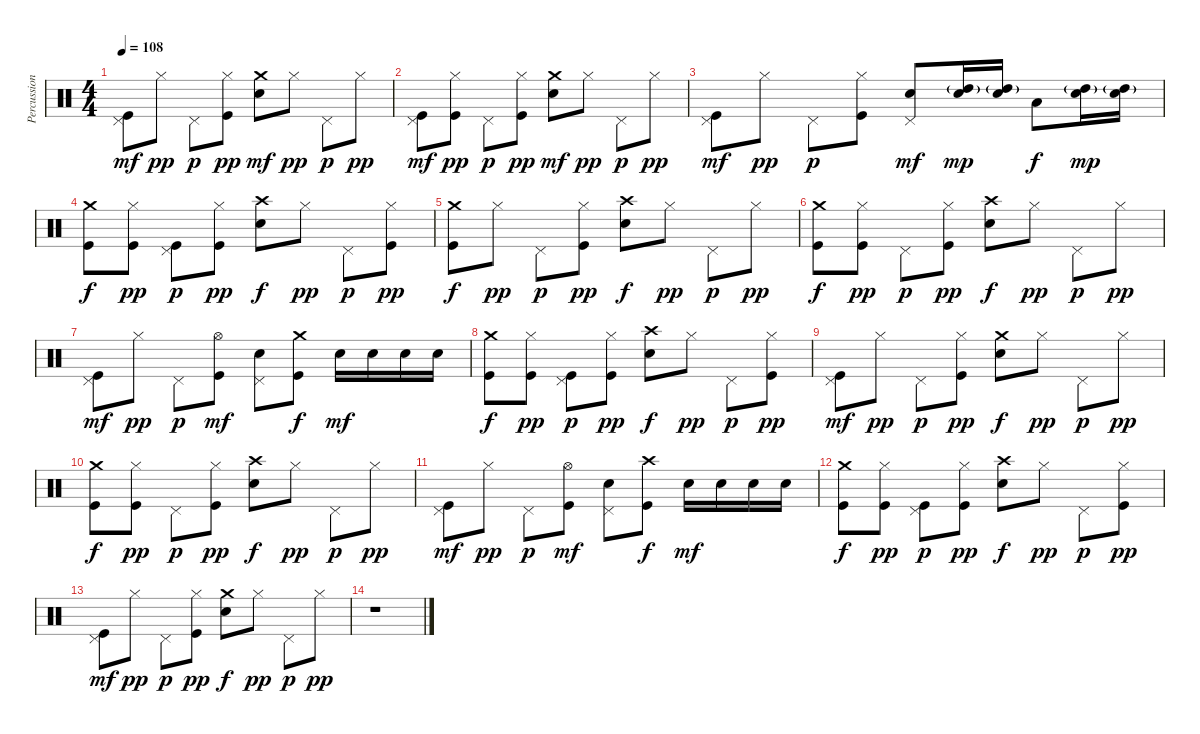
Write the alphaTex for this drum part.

\track ("Percussion" "Percussion") {instrument percussion}
\staff {score}
\articulation defaults
\ts (4 4)
\tempo 108
\clef neutral
\ks c
("Kick (hit)" "Pedal Hi-Hat (hit)").8{dy mf} "Hi-Hat (closed)".8{dy pp} "Pedal Hi-Hat (hit)".8{dy p} ("Kick (hit)" "Hi-Hat (closed)").8{dy pp} ("Electric Snare (hit)" "Crash medium (hit)").8{dy mf} "Hi-Hat (closed)".8{dy pp} "Pedal Hi-Hat (hit)".8{dy p} "Hi-Hat (closed)".8{dy pp} |
("Kick (hit)" "Pedal Hi-Hat (hit)").8{dy mf} ("Kick (hit)" "Hi-Hat (closed)").8{dy pp} "Pedal Hi-Hat (hit)".8{dy p} ("Kick (hit)" "Hi-Hat (closed)").8{dy pp} ("Electric Snare (hit)" "Crash medium (hit)").8{dy mf} "Hi-Hat (closed)".8{dy pp} "Pedal Hi-Hat (hit)".8{dy p} "Hi-Hat (closed)".8{dy pp} |
("Kick (hit)" "Pedal Hi-Hat (hit)").8{dy mf} "Hi-Hat (closed)".8{dy pp} "Pedal Hi-Hat (hit)".8{dy p} ("Kick (hit)" "Hi-Hat (closed)").8 ("Electric Snare (hit)" "Pedal Hi-Hat (hit)").8{dy mf} ("Electric Snare (hit)" "High Tom (hit)"{g}).16{dy mp} ("Electric Snare (hit)" "High Tom (hit)"{g}).16 "Low Tom (hit)".8{dy f} ("Electric Snare (hit)" "High Tom (hit)"{g}).16{dy mp} ("Electric Snare (hit)" "High Tom (hit)"{g}).16 |
("Kick (hit)" "Crash medium (hit)").8{dy f volume 7} ("Kick (hit)" "Hi-Hat (closed)").8{dy pp} ("Kick (hit)" "Pedal Hi-Hat (hit)").8{dy p} ("Kick (hit)" "Hi-Hat (closed)").8{dy pp} ("Electric Snare (hit)" "Crash high (hit)").8{dy f} "Hi-Hat (closed)".8{dy pp} "Pedal Hi-Hat (hit)".8{dy p} ("Kick (hit)" "Hi-Hat (closed)").8{dy pp} |
("Kick (hit)" "Crash medium (hit)").8{dy f} "Hi-Hat (closed)".8{dy pp} "Pedal Hi-Hat (hit)".8{dy p} ("Kick (hit)" "Hi-Hat (closed)").8{dy pp} ("Electric Snare (hit)" "Crash high (hit)").8{dy f} "Hi-Hat (closed)".8{dy pp} "Pedal Hi-Hat (hit)".8{dy p} "Hi-Hat (closed)".8{dy pp} |
("Kick (hit)" "Crash medium (hit)").8{dy f} ("Kick (hit)" "Hi-Hat (closed)").8{dy pp} "Pedal Hi-Hat (hit)".8{dy p} ("Kick (hit)" "Hi-Hat (closed)").8{dy pp} ("Electric Snare (hit)" "Crash high (hit)").8{dy f} "Hi-Hat (closed)".8{dy pp} "Pedal Hi-Hat (hit)".8{dy p} "Hi-Hat (closed)".8{dy pp} |
("Kick (hit)" "Pedal Hi-Hat (hit)").8{dy mf} "Hi-Hat (closed)".8{dy pp} "Pedal Hi-Hat (hit)".8{dy p} ("Kick (hit)" "Hi-Hat (open)").8{dy mf} ("Electric Snare (hit)" "Pedal Hi-Hat (hit)").8 ("Kick (hit)" "Crash medium (hit)").8{dy f} "Electric Snare (hit)".16{dy mf} "Electric Snare (hit)".16 "Electric Snare (hit)".16 "Electric Snare (hit)".16 |
("Kick (hit)" "Crash medium (hit)").8{dy f volume 3} ("Kick (hit)" "Hi-Hat (closed)").8{dy pp} ("Kick (hit)" "Pedal Hi-Hat (hit)").8{dy p} ("Kick (hit)" "Hi-Hat (closed)").8{dy pp} ("Electric Snare (hit)" "Crash high (hit)").8{dy f} "Hi-Hat (closed)".8{dy pp} "Pedal Hi-Hat (hit)".8{dy p} ("Kick (hit)" "Hi-Hat (closed)").8{dy pp} |
("Kick (hit)" "Pedal Hi-Hat (hit)").8{dy mf} "Hi-Hat (closed)".8{dy pp} "Pedal Hi-Hat (hit)".8{dy p} ("Kick (hit)" "Hi-Hat (closed)").8{dy pp} ("Electric Snare (hit)" "Crash medium (hit)").8{dy f} "Hi-Hat (closed)".8{dy pp} "Pedal Hi-Hat (hit)".8{dy p} "Hi-Hat (closed)".8{dy pp} |
("Kick (hit)" "Crash medium (hit)").8{dy f} ("Kick (hit)" "Hi-Hat (closed)").8{dy pp} "Pedal Hi-Hat (hit)".8{dy p} ("Kick (hit)" "Hi-Hat (closed)").8{dy pp} ("Electric Snare (hit)" "Crash high (hit)").8{dy f} "Hi-Hat (closed)".8{dy pp} "Pedal Hi-Hat (hit)".8{dy p} "Hi-Hat (closed)".8{dy pp} |
("Kick (hit)" "Pedal Hi-Hat (hit)").8{dy mf} "Hi-Hat (closed)".8{dy pp} "Pedal Hi-Hat (hit)".8{dy p} ("Kick (hit)" "Hi-Hat (open)").8{dy mf} ("Electric Snare (hit)" "Pedal Hi-Hat (hit)").8 ("Kick (hit)" "Crash high (hit)").8{dy f} "Electric Snare (hit)".16{dy mf} "Electric Snare (hit)".16 "Electric Snare (hit)".16 "Electric Snare (hit)".16 |
("Kick (hit)" "Crash medium (hit)").8{dy f volume 0} ("Kick (hit)" "Hi-Hat (closed)").8{dy pp} ("Kick (hit)" "Pedal Hi-Hat (hit)").8{dy p} ("Kick (hit)" "Hi-Hat (closed)").8{dy pp} ("Electric Snare (hit)" "Crash high (hit)").8{dy f} "Hi-Hat (closed)".8{dy pp} "Pedal Hi-Hat (hit)".8{dy p} ("Kick (hit)" "Hi-Hat (closed)").8{dy pp} |
("Kick (hit)" "Pedal Hi-Hat (hit)").8{dy mf} "Hi-Hat (closed)".8{dy pp} "Pedal Hi-Hat (hit)".8{dy p} ("Kick (hit)" "Hi-Hat (closed)").8{dy pp} ("Electric Snare (hit)" "Crash medium (hit)").8{dy f} "Hi-Hat (closed)".8{dy pp} "Pedal Hi-Hat (hit)".8{dy p} "Hi-Hat (closed)".8{dy pp} |
r.1
